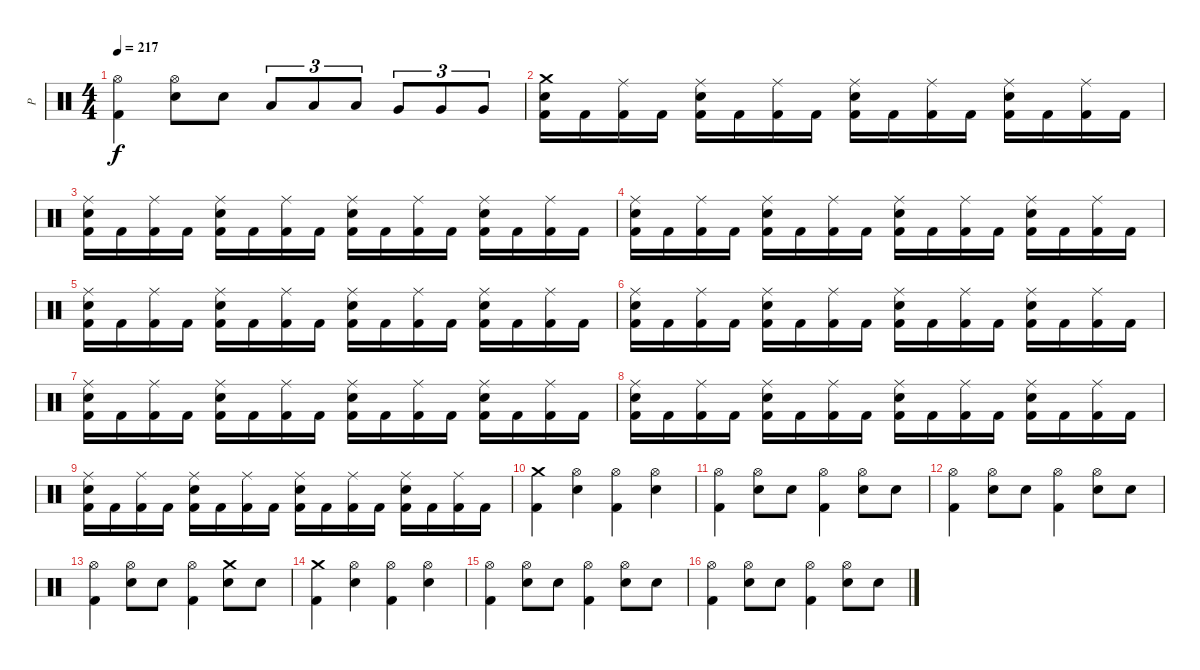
\track ("P" "P") {instrument percussion}
\staff {score}
\articulation defaults
\ts (4 4)
\tempo 217
\clef neutral
\ks c
("Hi-Hat (open)" "Kick (hit) 2").4{dy f} ("Hi-Hat (open)" "Electric Snare (hit)").8 "Electric Snare (hit)".8 "Low Tom (hit)".8{tu (3 2)} "Low Tom (hit)".8{tu (3 2)} "Low Tom (hit)".8{tu (3 2)} "Very Low Tom (hit)".8{tu (3 2)} "Very Low Tom (hit)".8{tu (3 2)} "Very Low Tom (hit)".8{tu (3 2)} |
("Crash medium (hit)" "Electric Snare (hit)" "Kick (hit) 2").16 "Kick (hit) 2".16 ("Ride (middle)" "Kick (hit) 2").16 "Kick (hit) 2".16 ("Ride (middle)" "Electric Snare (hit)" "Kick (hit) 2").16 "Kick (hit) 2".16 ("Ride (middle)" "Kick (hit) 2").16 "Kick (hit) 2".16 ("Ride (middle)" "Electric Snare (hit)" "Kick (hit) 2").16 "Kick (hit) 2".16 ("Ride (middle)" "Kick (hit) 2").16 "Kick (hit) 2".16 ("Ride (middle)" "Electric Snare (hit)" "Kick (hit) 2").16 "Kick (hit) 2".16 ("Ride (middle)" "Kick (hit) 2").16 "Kick (hit) 2".16 |
("Ride (middle)" "Electric Snare (hit)" "Kick (hit) 2").16 "Kick (hit) 2".16 ("Ride (middle)" "Kick (hit) 2").16 "Kick (hit) 2".16 ("Ride (middle)" "Electric Snare (hit)" "Kick (hit) 2").16 "Kick (hit) 2".16 ("Ride (middle)" "Kick (hit) 2").16 "Kick (hit) 2".16 ("Ride (middle)" "Electric Snare (hit)" "Kick (hit) 2").16 "Kick (hit) 2".16 ("Ride (middle)" "Kick (hit) 2").16 "Kick (hit) 2".16 ("Ride (middle)" "Electric Snare (hit)" "Kick (hit) 2").16 "Kick (hit) 2".16 ("Ride (middle)" "Kick (hit) 2").16 "Kick (hit) 2".16 |
("Ride (middle)" "Electric Snare (hit)" "Kick (hit) 2").16 "Kick (hit) 2".16 ("Ride (middle)" "Kick (hit) 2").16 "Kick (hit) 2".16 ("Ride (middle)" "Electric Snare (hit)" "Kick (hit) 2").16 "Kick (hit) 2".16 ("Ride (middle)" "Kick (hit) 2").16 "Kick (hit) 2".16 ("Ride (middle)" "Electric Snare (hit)" "Kick (hit) 2").16 "Kick (hit) 2".16 ("Ride (middle)" "Kick (hit) 2").16 "Kick (hit) 2".16 ("Ride (middle)" "Electric Snare (hit)" "Kick (hit) 2").16 "Kick (hit) 2".16 ("Ride (middle)" "Kick (hit) 2").16 "Kick (hit) 2".16 |
("Ride (middle)" "Electric Snare (hit)" "Kick (hit) 2").16 "Kick (hit) 2".16 ("Ride (middle)" "Kick (hit) 2").16 "Kick (hit) 2".16 ("Ride (middle)" "Electric Snare (hit)" "Kick (hit) 2").16 "Kick (hit) 2".16 ("Ride (middle)" "Kick (hit) 2").16 "Kick (hit) 2".16 ("Ride (middle)" "Electric Snare (hit)" "Kick (hit) 2").16 "Kick (hit) 2".16 ("Ride (middle)" "Kick (hit) 2").16 "Kick (hit) 2".16 ("Ride (middle)" "Electric Snare (hit)" "Kick (hit) 2").16 "Kick (hit) 2".16 ("Ride (middle)" "Kick (hit) 2").16 "Kick (hit) 2".16 |
("Ride (middle)" "Electric Snare (hit)" "Kick (hit) 2").16 "Kick (hit) 2".16 ("Ride (middle)" "Kick (hit) 2").16 "Kick (hit) 2".16 ("Ride (middle)" "Electric Snare (hit)" "Kick (hit) 2").16 "Kick (hit) 2".16 ("Ride (middle)" "Kick (hit) 2").16 "Kick (hit) 2".16 ("Ride (middle)" "Electric Snare (hit)" "Kick (hit) 2").16 "Kick (hit) 2".16 ("Ride (middle)" "Kick (hit) 2").16 "Kick (hit) 2".16 ("Ride (middle)" "Electric Snare (hit)" "Kick (hit) 2").16 "Kick (hit) 2".16 ("Ride (middle)" "Kick (hit) 2").16 "Kick (hit) 2".16 |
("Ride (middle)" "Electric Snare (hit)" "Kick (hit) 2").16 "Kick (hit) 2".16 ("Ride (middle)" "Kick (hit) 2").16 "Kick (hit) 2".16 ("Ride (middle)" "Electric Snare (hit)" "Kick (hit) 2").16 "Kick (hit) 2".16 ("Ride (middle)" "Kick (hit) 2").16 "Kick (hit) 2".16 ("Ride (middle)" "Electric Snare (hit)" "Kick (hit) 2").16 "Kick (hit) 2".16 ("Ride (middle)" "Kick (hit) 2").16 "Kick (hit) 2".16 ("Ride (middle)" "Electric Snare (hit)" "Kick (hit) 2").16 "Kick (hit) 2".16 ("Ride (middle)" "Kick (hit) 2").16 "Kick (hit) 2".16 |
("Ride (middle)" "Electric Snare (hit)" "Kick (hit) 2").16 "Kick (hit) 2".16 ("Ride (middle)" "Kick (hit) 2").16 "Kick (hit) 2".16 ("Ride (middle)" "Electric Snare (hit)" "Kick (hit) 2").16 "Kick (hit) 2".16 ("Ride (middle)" "Kick (hit) 2").16 "Kick (hit) 2".16 ("Ride (middle)" "Electric Snare (hit)" "Kick (hit) 2").16 "Kick (hit) 2".16 ("Ride (middle)" "Kick (hit) 2").16 "Kick (hit) 2".16 ("Ride (middle)" "Electric Snare (hit)" "Kick (hit) 2").16 "Kick (hit) 2".16 ("Ride (middle)" "Kick (hit) 2").16 "Kick (hit) 2".16 |
("Ride (middle)" "Electric Snare (hit)" "Kick (hit) 2").16 "Kick (hit) 2".16 ("Ride (middle)" "Kick (hit) 2").16 "Kick (hit) 2".16 ("Ride (middle)" "Electric Snare (hit)" "Kick (hit) 2").16 "Kick (hit) 2".16 ("Ride (middle)" "Kick (hit) 2").16 "Kick (hit) 2".16 ("Ride (middle)" "Electric Snare (hit)" "Kick (hit) 2").16 "Kick (hit) 2".16 ("Ride (middle)" "Kick (hit) 2").16 "Kick (hit) 2".16 ("Ride (middle)" "Electric Snare (hit)" "Kick (hit) 2").16 "Kick (hit) 2".16 ("Ride (middle)" "Kick (hit) 2").16 "Kick (hit) 2".16 |
("Crash medium (hit)" "Kick (hit) 2").4 ("Hi-Hat (open)" "Electric Snare (hit)").4 ("Hi-Hat (open)" "Kick (hit) 2").4 ("Hi-Hat (open)" "Electric Snare (hit)").4 |
("Hi-Hat (open)" "Kick (hit) 2").4 ("Hi-Hat (open)" "Electric Snare (hit)").8 "Electric Snare (hit)".8 ("Hi-Hat (open)" "Kick (hit) 2").4 ("Hi-Hat (open)" "Electric Snare (hit)").8 "Electric Snare (hit)".8 |
("Hi-Hat (open)" "Kick (hit) 2").4 ("Hi-Hat (open)" "Electric Snare (hit)").8 "Electric Snare (hit)".8 ("Hi-Hat (open)" "Kick (hit) 2").4 ("Hi-Hat (open)" "Electric Snare (hit)").8 "Electric Snare (hit)".8 |
("Hi-Hat (open)" "Kick (hit) 2").4 ("Hi-Hat (open)" "Electric Snare (hit)").8 "Electric Snare (hit)".8 ("Hi-Hat (open)" "Kick (hit) 2").4 ("Crash medium (hit)" "Electric Snare (hit)").8 "Electric Snare (hit)".8 |
("Crash medium (hit)" "Kick (hit) 2").4 ("Hi-Hat (open)" "Electric Snare (hit)").4 ("Hi-Hat (open)" "Kick (hit) 2").4 ("Hi-Hat (open)" "Electric Snare (hit)").4 |
("Hi-Hat (open)" "Kick (hit) 2").4 ("Hi-Hat (open)" "Electric Snare (hit)").8 "Electric Snare (hit)".8 ("Hi-Hat (open)" "Kick (hit) 2").4 ("Hi-Hat (open)" "Electric Snare (hit)").8 "Electric Snare (hit)".8 |
("Hi-Hat (open)" "Kick (hit) 2").4 ("Hi-Hat (open)" "Electric Snare (hit)").8 "Electric Snare (hit)".8 ("Hi-Hat (open)" "Kick (hit) 2").4 ("Hi-Hat (open)" "Electric Snare (hit)").8 "Electric Snare (hit)".8
